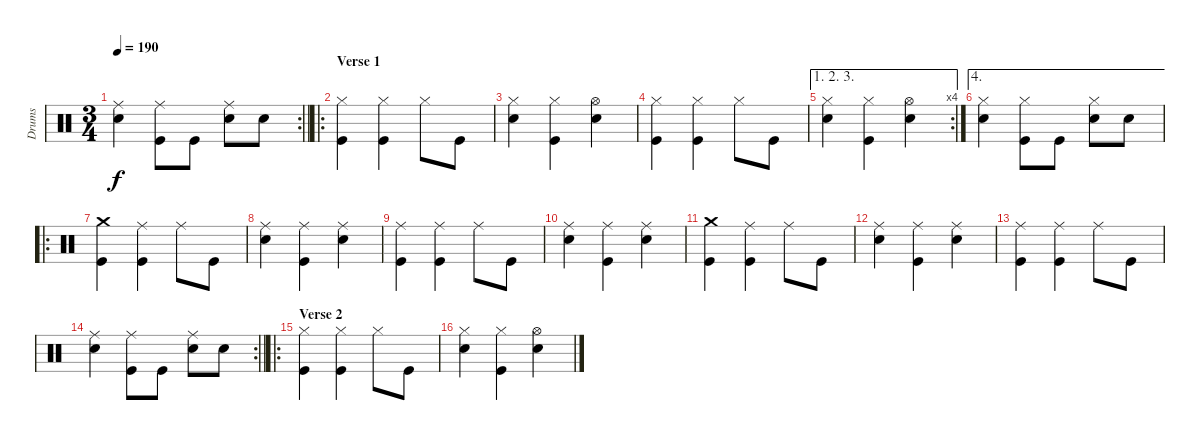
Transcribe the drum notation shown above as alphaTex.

\track ("Drums" "Drums") {instrument percussion bank 1}
\staff {score}
\articulation defaults
\rc 2
\ts (3 4)
\tempo 190
\clef neutral
\barLineRight lightlight
\ks c
("Snare (hit) 2" "Ride (middle)").4{dy f} ("Kick (hit)" "Ride (middle)").8 "Kick (hit)".8 ("Snare (hit) 2" "Ride (middle)").8 "Snare (hit) 2".8 |
\ro
\section ("" "Verse 1")
("Kick (hit)" "Hi-Hat (closed)").4 ("Kick (hit)" "Hi-Hat (closed)").4 "Hi-Hat (closed)".8 "Kick (hit)".8 |
("Snare (hit) 2" "Hi-Hat (closed)").4 ("Kick (hit)" "Hi-Hat (closed)").4 ("Snare (hit) 2" "Hi-Hat (open)").4 |
("Kick (hit)" "Hi-Hat (closed)").4 ("Kick (hit)" "Hi-Hat (closed)").4 "Hi-Hat (closed)".8 "Kick (hit)".8 |
\ae (1 2 3)
\rc 4
("Snare (hit) 2" "Hi-Hat (closed)").4 ("Kick (hit)" "Hi-Hat (closed)").4 ("Snare (hit) 2" "Hi-Hat (open)").4 |
\ae 4
("Snare (hit) 2" "Hi-Hat (closed)").4 ("Kick (hit)" "Hi-Hat (closed)").8 "Kick (hit)".8 ("Snare (hit) 2" "Hi-Hat (closed)").8 "Snare (hit) 2".8 |
\ro
("Kick (hit)" "Crash medium (hit)").4 ("Kick (hit)" "Ride (middle)").4 "Ride (middle)".8 "Kick (hit)".8 |
("Snare (hit) 2" "Ride (middle)").4 ("Kick (hit)" "Ride (middle)").4 ("Snare (hit) 2" "Ride (middle)").4 |
("Kick (hit)" "Ride (middle)").4 ("Kick (hit)" "Ride (middle)").4 "Ride (middle)".8 "Kick (hit)".8 |
("Snare (hit) 2" "Ride (middle)").4 ("Kick (hit)" "Ride (middle)").4 ("Snare (hit) 2" "Ride (middle)").4 |
("Kick (hit)" "Crash medium (hit)").4 ("Kick (hit)" "Ride (middle)").4 "Ride (middle)".8 "Kick (hit)".8 |
("Snare (hit) 2" "Ride (middle)").4 ("Kick (hit)" "Ride (middle)").4 ("Snare (hit) 2" "Ride (middle)").4 |
("Kick (hit)" "Ride (middle)").4 ("Kick (hit)" "Ride (middle)").4 "Ride (middle)".8 "Kick (hit)".8 |
\rc 2
\barLineRight lightlight
("Snare (hit) 2" "Ride (middle)").4 ("Kick (hit)" "Ride (middle)").8 "Kick (hit)".8 ("Snare (hit) 2" "Ride (middle)").8 "Snare (hit) 2".8 |
\ro
\section ("" "Verse 2")
("Kick (hit)" "Hi-Hat (closed)").4 ("Kick (hit)" "Hi-Hat (closed)").4 "Hi-Hat (closed)".8 "Kick (hit)".8 |
("Snare (hit) 2" "Hi-Hat (closed)").4 ("Kick (hit)" "Hi-Hat (closed)").4 ("Snare (hit) 2" "Hi-Hat (open)").4
